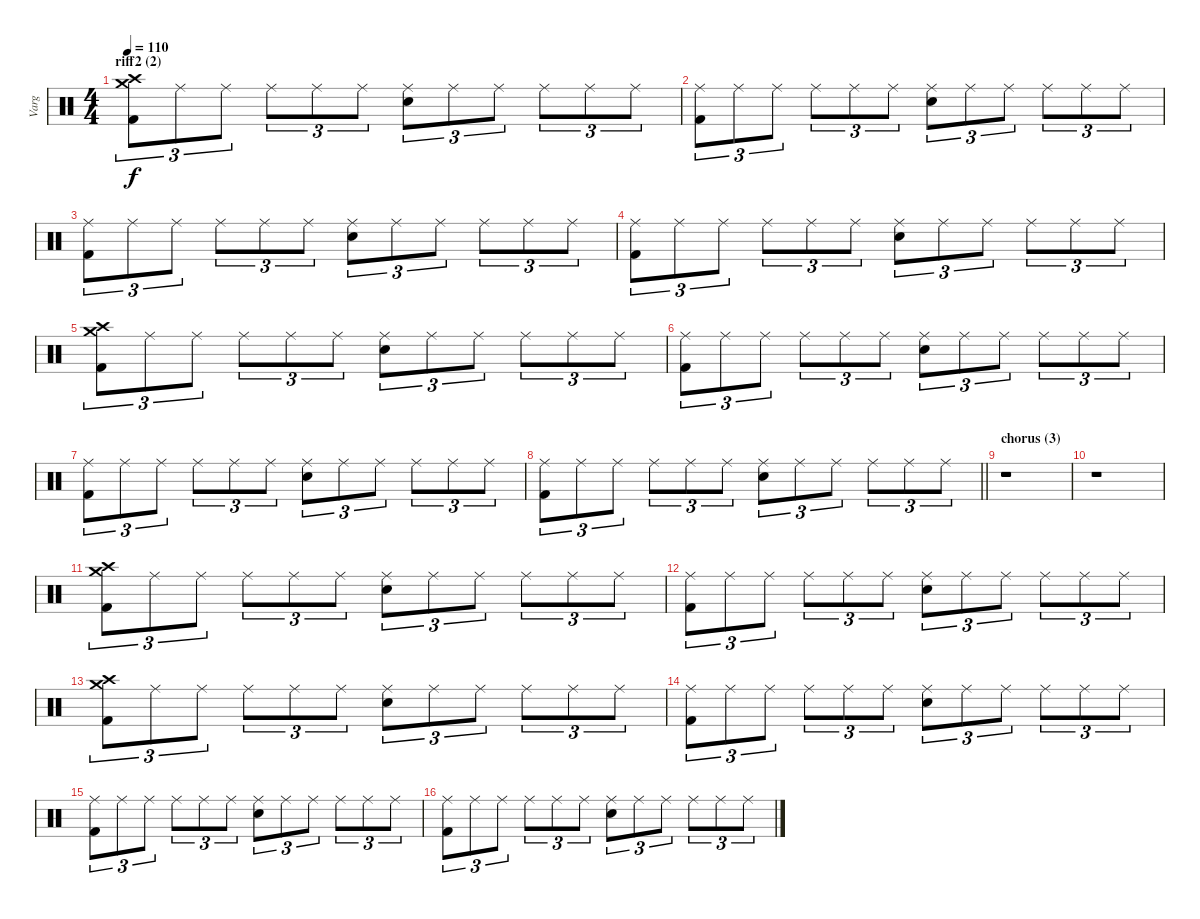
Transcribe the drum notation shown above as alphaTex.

\track ("Varg" "Varg") {instrument percussion}
\staff {score}
\articulation defaults
\ts (4 4)
\section ("" "riff2 (2)")
\tempo 110
\clef neutral
\ks c
("Crash high (hit)" "Crash medium (hit)" "Kick (hit) 2").8{tu (3 2) dy f} "Ride (middle)".8{tu (3 2)} "Ride (middle)".8{tu (3 2)} "Ride (middle)".8{tu (3 2)} "Ride (middle)".8{tu (3 2)} "Ride (middle)".8{tu (3 2)} ("Ride (middle)" "Snare (hit) 2").8{tu (3 2)} "Ride (middle)".8{tu (3 2)} "Ride (middle)".8{tu (3 2)} "Ride (middle)".8{tu (3 2)} "Ride (middle)".8{tu (3 2)} "Ride (middle)".8{tu (3 2)} |
("Ride (middle)" "Kick (hit) 2").8{tu (3 2)} "Ride (middle)".8{tu (3 2)} "Ride (middle)".8{tu (3 2)} "Ride (middle)".8{tu (3 2)} "Ride (middle)".8{tu (3 2)} "Ride (middle)".8{tu (3 2)} ("Ride (middle)" "Snare (hit) 2").8{tu (3 2)} "Ride (middle)".8{tu (3 2)} "Ride (middle)".8{tu (3 2)} "Ride (middle)".8{tu (3 2)} "Ride (middle)".8{tu (3 2)} "Ride (middle)".8{tu (3 2)} |
("Ride (middle)" "Kick (hit) 2").8{tu (3 2)} "Ride (middle)".8{tu (3 2)} "Ride (middle)".8{tu (3 2)} "Ride (middle)".8{tu (3 2)} "Ride (middle)".8{tu (3 2)} "Ride (middle)".8{tu (3 2)} ("Ride (middle)" "Snare (hit) 2").8{tu (3 2)} "Ride (middle)".8{tu (3 2)} "Ride (middle)".8{tu (3 2)} "Ride (middle)".8{tu (3 2)} "Ride (middle)".8{tu (3 2)} "Ride (middle)".8{tu (3 2)} |
("Ride (middle)" "Kick (hit) 2").8{tu (3 2)} "Ride (middle)".8{tu (3 2)} "Ride (middle)".8{tu (3 2)} "Ride (middle)".8{tu (3 2)} "Ride (middle)".8{tu (3 2)} "Ride (middle)".8{tu (3 2)} ("Ride (middle)" "Snare (hit) 2").8{tu (3 2)} "Ride (middle)".8{tu (3 2)} "Ride (middle)".8{tu (3 2)} "Ride (middle)".8{tu (3 2)} "Ride (middle)".8{tu (3 2)} "Ride (middle)".8{tu (3 2)} |
("Crash high (hit)" "Crash medium (hit)" "Kick (hit) 2").8{tu (3 2)} "Ride (middle)".8{tu (3 2)} "Ride (middle)".8{tu (3 2)} "Ride (middle)".8{tu (3 2)} "Ride (middle)".8{tu (3 2)} "Ride (middle)".8{tu (3 2)} ("Ride (middle)" "Snare (hit) 2").8{tu (3 2)} "Ride (middle)".8{tu (3 2)} "Ride (middle)".8{tu (3 2)} "Ride (middle)".8{tu (3 2)} "Ride (middle)".8{tu (3 2)} "Ride (middle)".8{tu (3 2)} |
("Ride (middle)" "Kick (hit) 2").8{tu (3 2)} "Ride (middle)".8{tu (3 2)} "Ride (middle)".8{tu (3 2)} "Ride (middle)".8{tu (3 2)} "Ride (middle)".8{tu (3 2)} "Ride (middle)".8{tu (3 2)} ("Ride (middle)" "Snare (hit) 2").8{tu (3 2)} "Ride (middle)".8{tu (3 2)} "Ride (middle)".8{tu (3 2)} "Ride (middle)".8{tu (3 2)} "Ride (middle)".8{tu (3 2)} "Ride (middle)".8{tu (3 2)} |
("Ride (middle)" "Kick (hit) 2").8{tu (3 2)} "Ride (middle)".8{tu (3 2)} "Ride (middle)".8{tu (3 2)} "Ride (middle)".8{tu (3 2)} "Ride (middle)".8{tu (3 2)} "Ride (middle)".8{tu (3 2)} ("Ride (middle)" "Snare (hit) 2").8{tu (3 2)} "Ride (middle)".8{tu (3 2)} "Ride (middle)".8{tu (3 2)} "Ride (middle)".8{tu (3 2)} "Ride (middle)".8{tu (3 2)} "Ride (middle)".8{tu (3 2)} |
\barLineRight lightlight
("Ride (middle)" "Kick (hit) 2").8{tu (3 2)} "Ride (middle)".8{tu (3 2)} "Ride (middle)".8{tu (3 2)} "Ride (middle)".8{tu (3 2)} "Ride (middle)".8{tu (3 2)} "Ride (middle)".8{tu (3 2)} ("Ride (middle)" "Snare (hit) 2").8{tu (3 2)} "Ride (middle)".8{tu (3 2)} "Ride (middle)".8{tu (3 2)} "Ride (middle)".8{tu (3 2)} "Ride (middle)".8{tu (3 2)} "Ride (middle)".8{tu (3 2)} |
\section ("" "chorus (3)")
r.1 |
r.1 |
("Crash high (hit)" "Crash medium (hit)" "Kick (hit) 2").8{tu (3 2)} "Ride (middle)".8{tu (3 2)} "Ride (middle)".8{tu (3 2)} "Ride (middle)".8{tu (3 2)} "Ride (middle)".8{tu (3 2)} "Ride (middle)".8{tu (3 2)} ("Ride (middle)" "Snare (hit) 2").8{tu (3 2)} "Ride (middle)".8{tu (3 2)} "Ride (middle)".8{tu (3 2)} "Ride (middle)".8{tu (3 2)} "Ride (middle)".8{tu (3 2)} "Ride (middle)".8{tu (3 2)} |
("Ride (middle)" "Kick (hit) 2").8{tu (3 2)} "Ride (middle)".8{tu (3 2)} "Ride (middle)".8{tu (3 2)} "Ride (middle)".8{tu (3 2)} "Ride (middle)".8{tu (3 2)} "Ride (middle)".8{tu (3 2)} ("Ride (middle)" "Snare (hit) 2").8{tu (3 2)} "Ride (middle)".8{tu (3 2)} "Ride (middle)".8{tu (3 2)} "Ride (middle)".8{tu (3 2)} "Ride (middle)".8{tu (3 2)} "Ride (middle)".8{tu (3 2)} |
("Crash high (hit)" "Crash medium (hit)" "Kick (hit) 2").8{tu (3 2)} "Ride (middle)".8{tu (3 2)} "Ride (middle)".8{tu (3 2)} "Ride (middle)".8{tu (3 2)} "Ride (middle)".8{tu (3 2)} "Ride (middle)".8{tu (3 2)} ("Ride (middle)" "Snare (hit) 2").8{tu (3 2)} "Ride (middle)".8{tu (3 2)} "Ride (middle)".8{tu (3 2)} "Ride (middle)".8{tu (3 2)} "Ride (middle)".8{tu (3 2)} "Ride (middle)".8{tu (3 2)} |
("Ride (middle)" "Kick (hit) 2").8{tu (3 2)} "Ride (middle)".8{tu (3 2)} "Ride (middle)".8{tu (3 2)} "Ride (middle)".8{tu (3 2)} "Ride (middle)".8{tu (3 2)} "Ride (middle)".8{tu (3 2)} ("Ride (middle)" "Snare (hit) 2").8{tu (3 2)} "Ride (middle)".8{tu (3 2)} "Ride (middle)".8{tu (3 2)} "Ride (middle)".8{tu (3 2)} "Ride (middle)".8{tu (3 2)} "Ride (middle)".8{tu (3 2)} |
("Ride (middle)" "Kick (hit) 2").8{tu (3 2)} "Ride (middle)".8{tu (3 2)} "Ride (middle)".8{tu (3 2)} "Ride (middle)".8{tu (3 2)} "Ride (middle)".8{tu (3 2)} "Ride (middle)".8{tu (3 2)} ("Ride (middle)" "Snare (hit) 2").8{tu (3 2)} "Ride (middle)".8{tu (3 2)} "Ride (middle)".8{tu (3 2)} "Ride (middle)".8{tu (3 2)} "Ride (middle)".8{tu (3 2)} "Ride (middle)".8{tu (3 2)} |
("Ride (middle)" "Kick (hit) 2").8{tu (3 2)} "Ride (middle)".8{tu (3 2)} "Ride (middle)".8{tu (3 2)} "Ride (middle)".8{tu (3 2)} "Ride (middle)".8{tu (3 2)} "Ride (middle)".8{tu (3 2)} ("Ride (middle)" "Snare (hit) 2").8{tu (3 2)} "Ride (middle)".8{tu (3 2)} "Ride (middle)".8{tu (3 2)} "Ride (middle)".8{tu (3 2)} "Ride (middle)".8{tu (3 2)} "Ride (middle)".8{tu (3 2)}
